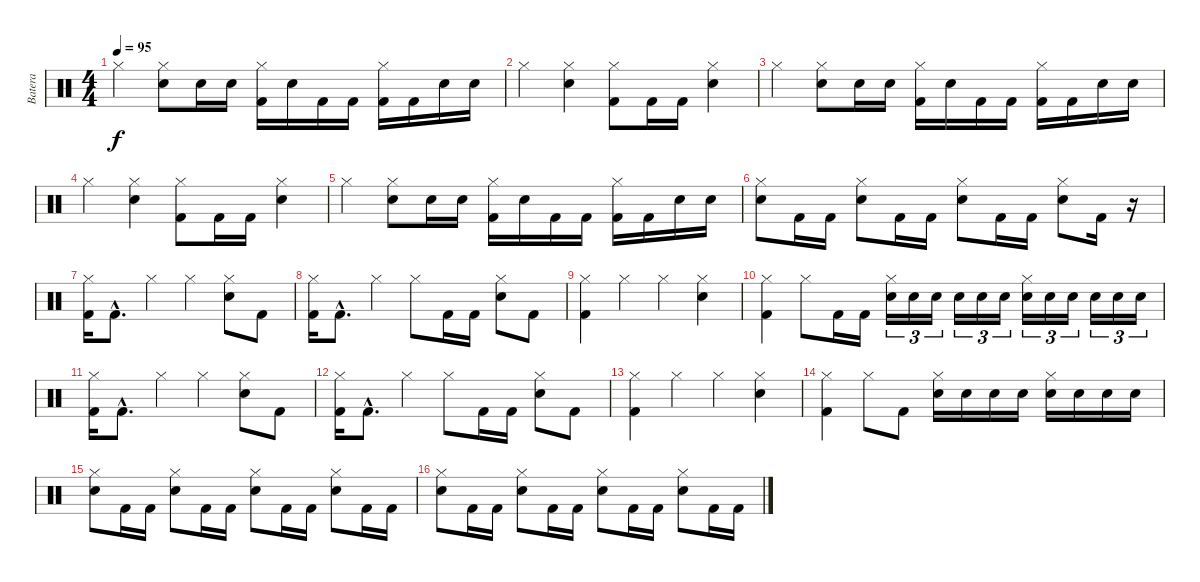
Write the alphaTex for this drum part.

\track ("Batera" "Batera") {instrument percussion}
\staff {score}
\articulation defaults
\ts (4 4)
\tempo 95
\clef neutral
\ks c "Hi-Hat (closed)".4{dy f}
("Hi-Hat (closed)" "Snare (hit) 2").8 "Snare (hit) 2".16 "Snare (hit) 2".16 ("Hi-Hat (closed)" "Kick (hit) 2").16 "Snare (hit) 2".16 "Kick (hit) 2".16 "Kick (hit) 2".16 ("Hi-Hat (closed)" "Kick (hit) 2").16 "Kick (hit) 2".16 "Snare (hit) 2".16 "Snare (hit) 2".16 |
"Hi-Hat (closed)".4 ("Hi-Hat (closed)" "Snare (hit) 2").4 ("Hi-Hat (closed)" "Kick (hit) 2").8 "Kick (hit) 2".16 "Kick (hit) 2".16 ("Hi-Hat (closed)" "Snare (hit) 2").4 |
"Hi-Hat (closed)".4 ("Hi-Hat (closed)" "Snare (hit) 2").8 "Snare (hit) 2".16 "Snare (hit) 2".16 ("Hi-Hat (closed)" "Kick (hit) 2").16 "Snare (hit) 2".16 "Kick (hit) 2".16 "Kick (hit) 2".16 ("Hi-Hat (closed)" "Kick (hit) 2").16 "Kick (hit) 2".16 "Snare (hit) 2".16 "Snare (hit) 2".16 |
"Hi-Hat (closed)".4 ("Hi-Hat (closed)" "Snare (hit) 2").4 ("Hi-Hat (closed)" "Kick (hit) 2").8 "Kick (hit) 2".16 "Kick (hit) 2".16 ("Hi-Hat (closed)" "Snare (hit) 2").4 |
"Hi-Hat (closed)".4 ("Hi-Hat (closed)" "Snare (hit) 2").8 "Snare (hit) 2".16 "Snare (hit) 2".16 ("Hi-Hat (closed)" "Kick (hit) 2").16 "Snare (hit) 2".16 "Kick (hit) 2".16 "Kick (hit) 2".16 ("Hi-Hat (closed)" "Kick (hit) 2").16 "Kick (hit) 2".16 "Snare (hit) 2".16 "Snare (hit) 2".16 |
("Hi-Hat (closed)" "Snare (hit) 2").8 "Kick (hit) 2".16 "Kick (hit) 2".16 ("Hi-Hat (closed)" "Snare (hit) 2").8 "Kick (hit) 2".16 "Kick (hit) 2".16 ("Hi-Hat (closed)" "Snare (hit) 2").8 "Kick (hit) 2".16 "Kick (hit) 2".16 ("Hi-Hat (closed)" "Snare (hit) 2").8 "Kick (hit) 2".16 r.16 |
("Hi-Hat (closed)" "Kick (hit) 2").16 "Kick (hit) 2"{hac}.8{d} "Hi-Hat (closed)".4 "Hi-Hat (closed)".4 ("Hi-Hat (closed)" "Snare (hit) 2").8 "Kick (hit) 2".8 |
("Hi-Hat (closed)" "Kick (hit) 2").16 "Kick (hit) 2"{hac}.8{d} "Hi-Hat (closed)".4 "Hi-Hat (closed)".8 "Kick (hit) 2".16 "Kick (hit) 2".16 ("Hi-Hat (closed)" "Snare (hit) 2").8 "Kick (hit) 2".8 |
("Hi-Hat (closed)" "Kick (hit) 2").4 "Hi-Hat (closed)".4 "Hi-Hat (closed)".4 ("Hi-Hat (closed)" "Snare (hit) 2").4 |
("Hi-Hat (closed)" "Kick (hit) 2").4 "Hi-Hat (closed)".8 "Kick (hit) 2".16 "Kick (hit) 2".16 ("Hi-Hat (closed)" "Snare (hit) 2").16{tu (3 2)} "Snare (hit) 2".16{tu (3 2)} "Snare (hit) 2".16{tu (3 2)} "Snare (hit) 2".16{tu (3 2)} "Snare (hit) 2".16{tu (3 2)} "Snare (hit) 2".16{tu (3 2)} ("Hi-Hat (closed)" "Snare (hit) 2").16{tu (3 2)} "Snare (hit) 2".16{tu (3 2)} "Snare (hit) 2".16{tu (3 2)} "Snare (hit) 2".16{tu (3 2)} "Snare (hit) 2".16{tu (3 2)} "Snare (hit) 2".16{tu (3 2)} |
("Hi-Hat (closed)" "Kick (hit) 2").16 "Kick (hit) 2"{hac}.8{d} "Hi-Hat (closed)".4 "Hi-Hat (closed)".4 ("Hi-Hat (closed)" "Snare (hit) 2").8 "Kick (hit) 2".8 |
("Hi-Hat (closed)" "Kick (hit) 2").16 "Kick (hit) 2"{hac}.8{d} "Hi-Hat (closed)".4 "Hi-Hat (closed)".8 "Kick (hit) 2".16 "Kick (hit) 2".16 ("Hi-Hat (closed)" "Snare (hit) 2").8 "Kick (hit) 2".8 |
("Hi-Hat (closed)" "Kick (hit) 2").4 "Hi-Hat (closed)".4 "Hi-Hat (closed)".4 ("Hi-Hat (closed)" "Snare (hit) 2").4 |
("Hi-Hat (closed)" "Kick (hit) 2").4 "Hi-Hat (closed)".8 "Kick (hit) 2".8 ("Hi-Hat (closed)" "Snare (hit) 2").16 "Snare (hit) 2".16 "Snare (hit) 2".16 "Snare (hit) 2".16 ("Hi-Hat (closed)" "Snare (hit) 2").16 "Snare (hit) 2".16 "Snare (hit) 2".16 "Snare (hit) 2".16 |
("Hi-Hat (closed)" "Snare (hit) 2").8 "Kick (hit) 2".16 "Kick (hit) 2".16 ("Hi-Hat (closed)" "Snare (hit) 2").8 "Kick (hit) 2".16 "Kick (hit) 2".16 ("Hi-Hat (closed)" "Snare (hit) 2").8 "Kick (hit) 2".16 "Kick (hit) 2".16 ("Hi-Hat (closed)" "Snare (hit) 2").8 "Kick (hit) 2".16 "Kick (hit) 2".16 |
("Hi-Hat (closed)" "Snare (hit) 2").8 "Kick (hit) 2".16 "Kick (hit) 2".16 ("Hi-Hat (closed)" "Snare (hit) 2").8 "Kick (hit) 2".16 "Kick (hit) 2".16 ("Hi-Hat (closed)" "Snare (hit) 2").8 "Kick (hit) 2".16 "Kick (hit) 2".16 ("Hi-Hat (closed)" "Snare (hit) 2").8 "Kick (hit) 2".16 "Kick (hit) 2".16
